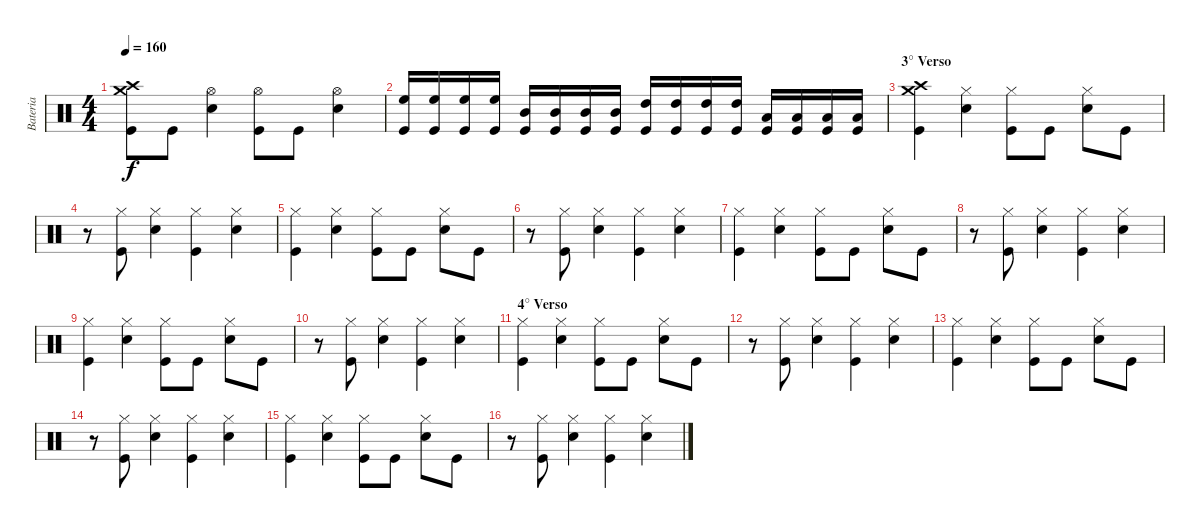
\track ("Bateria" "Bateria") {instrument percussion}
\staff {score}
\articulation defaults
\ts (4 4)
\tempo 160
\clef neutral
\ks c
("Crash medium (hit)" "Crash high (hit)" "Kick (hit)").8{dy f} "Kick (hit)".8 ("Hi-Hat (open)" "Snare (hit) 2").4 ("Hi-Hat (open)" "Kick (hit)").8 "Kick (hit)".8 ("Hi-Hat (open)" "Snare (hit) 2").4 |
("High Floor Tom (hit)" "Kick (hit)").16 ("High Floor Tom (hit)" "Kick (hit)").16 ("High Floor Tom (hit)" "Kick (hit)").16 ("High Floor Tom (hit)" "Kick (hit)").16 ("Mid Tom (hit)" "Kick (hit)").16 ("Mid Tom (hit)" "Kick (hit)").16 ("Mid Tom (hit)" "Kick (hit)").16 ("Mid Tom (hit)" "Kick (hit)").16 ("High Tom (hit)" "Kick (hit)").16 ("High Tom (hit)" "Kick (hit)").16 ("High Tom (hit)" "Kick (hit)").16 ("High Tom (hit)" "Kick (hit)").16 ("Low Tom (hit)" "Kick (hit)").16 ("Low Tom (hit)" "Kick (hit)").16 ("Low Tom (hit)" "Kick (hit)").16 ("Low Tom (hit)" "Kick (hit)").16 |
\section ("" "3° Verso")
("Crash medium (hit)" "Crash high (hit)" "Kick (hit)").4 ("Hi-Hat (closed)" "Snare (hit) 2").4 ("Hi-Hat (closed)" "Kick (hit)").8 "Kick (hit)".8 ("Hi-Hat (closed)" "Snare (hit) 2").8 "Kick (hit)".8 |
r.8 ("Hi-Hat (closed)" "Kick (hit)").8 ("Hi-Hat (closed)" "Snare (hit) 2").4 ("Hi-Hat (closed)" "Kick (hit)").4 ("Hi-Hat (closed)" "Snare (hit) 2").4 |
("Hi-Hat (closed)" "Kick (hit)").4 ("Hi-Hat (closed)" "Snare (hit) 2").4 ("Hi-Hat (closed)" "Kick (hit)").8 "Kick (hit)".8 ("Hi-Hat (closed)" "Snare (hit) 2").8 "Kick (hit)".8 |
r.8 ("Hi-Hat (closed)" "Kick (hit)").8 ("Hi-Hat (closed)" "Snare (hit) 2").4 ("Hi-Hat (closed)" "Kick (hit)").4 ("Hi-Hat (closed)" "Snare (hit) 2").4 |
("Hi-Hat (closed)" "Kick (hit)").4 ("Hi-Hat (closed)" "Snare (hit) 2").4 ("Hi-Hat (closed)" "Kick (hit)").8 "Kick (hit)".8 ("Hi-Hat (closed)" "Snare (hit) 2").8 "Kick (hit)".8 |
r.8 ("Hi-Hat (closed)" "Kick (hit)").8 ("Hi-Hat (closed)" "Snare (hit) 2").4 ("Hi-Hat (closed)" "Kick (hit)").4 ("Hi-Hat (closed)" "Snare (hit) 2").4 |
("Hi-Hat (closed)" "Kick (hit)").4 ("Hi-Hat (closed)" "Snare (hit) 2").4 ("Hi-Hat (closed)" "Kick (hit)").8 "Kick (hit)".8 ("Hi-Hat (closed)" "Snare (hit) 2").8 "Kick (hit)".8 |
r.8 ("Hi-Hat (closed)" "Kick (hit)").8 ("Hi-Hat (closed)" "Snare (hit) 2").4 ("Hi-Hat (closed)" "Kick (hit)").4 ("Hi-Hat (closed)" "Snare (hit) 2").4 |
\section ("" "4° Verso")
("Hi-Hat (closed)" "Kick (hit)").4 ("Hi-Hat (closed)" "Snare (hit) 2").4 ("Hi-Hat (closed)" "Kick (hit)").8 "Kick (hit)".8 ("Hi-Hat (closed)" "Snare (hit) 2").8 "Kick (hit)".8 |
r.8 ("Hi-Hat (closed)" "Kick (hit)").8 ("Hi-Hat (closed)" "Snare (hit) 2").4 ("Hi-Hat (closed)" "Kick (hit)").4 ("Hi-Hat (closed)" "Snare (hit) 2").4 |
("Hi-Hat (closed)" "Kick (hit)").4 ("Hi-Hat (closed)" "Snare (hit) 2").4 ("Hi-Hat (closed)" "Kick (hit)").8 "Kick (hit)".8 ("Hi-Hat (closed)" "Snare (hit) 2").8 "Kick (hit)".8 |
r.8 ("Hi-Hat (closed)" "Kick (hit)").8 ("Hi-Hat (closed)" "Snare (hit) 2").4 ("Hi-Hat (closed)" "Kick (hit)").4 ("Hi-Hat (closed)" "Snare (hit) 2").4 |
("Hi-Hat (closed)" "Kick (hit)").4 ("Hi-Hat (closed)" "Snare (hit) 2").4 ("Hi-Hat (closed)" "Kick (hit)").8 "Kick (hit)".8 ("Hi-Hat (closed)" "Snare (hit) 2").8 "Kick (hit)".8 |
r.8 ("Hi-Hat (closed)" "Kick (hit)").8 ("Hi-Hat (closed)" "Snare (hit) 2").4 ("Hi-Hat (closed)" "Kick (hit)").4 ("Hi-Hat (closed)" "Snare (hit) 2").4
